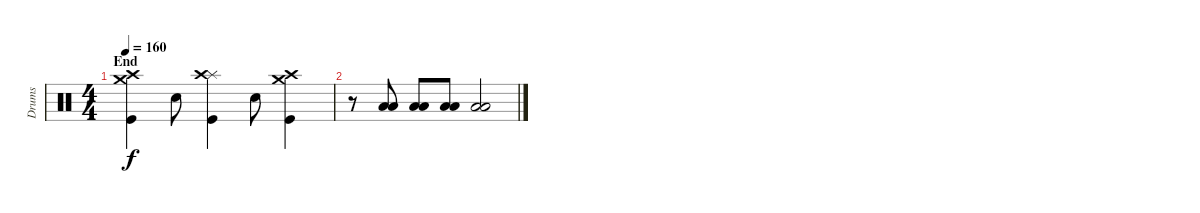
\track ("Drums" "Drums") {instrument percussion}
\staff {score}
\articulation defaults
\ts (4 4)
\section ("" "End")
\tempo 160
\clef neutral
\ks c
("Kick (hit)" "Crash medium (hit)" "Crash high (hit)").4{dy f} "Electric Snare (hit)".8 ("Kick (hit)" "Splash (hit)" "Crash high (hit)").4 "Electric Snare (hit)".8 ("Kick (hit)" "Crash medium (hit)" "Crash high (hit)").4 |
r.8 ("Low Floor Tom (hit)" "Low Tom (hit)").8 ("Low Floor Tom (hit)" "Low Tom (hit)").8 ("Low Floor Tom (hit)" "Low Tom (hit)").8 ("Low Floor Tom (hit)" "Low Tom (hit)").2
